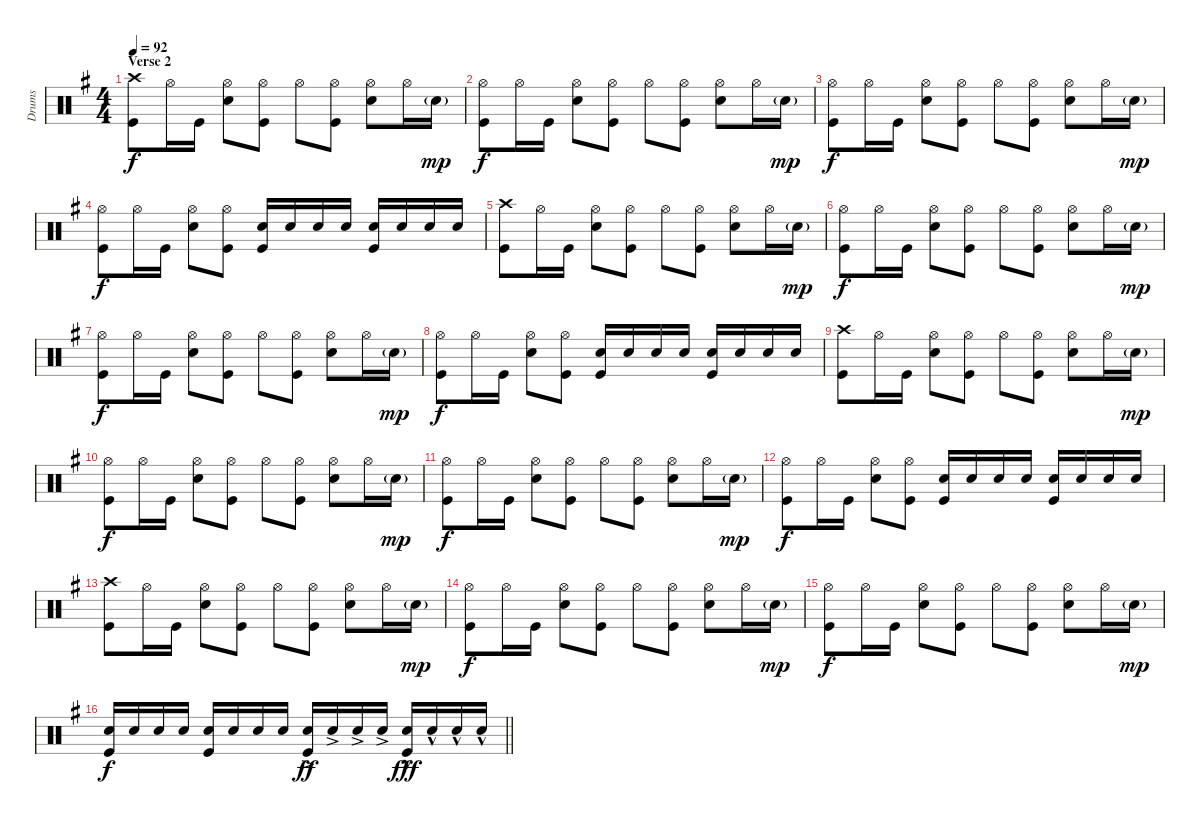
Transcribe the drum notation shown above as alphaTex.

\track ("Drums" "Drums") {instrument percussion}
\staff {score}
\articulation defaults
\ts (4 4)
\section ("" "Verse 2")
\tempo 92
\clef neutral
\ks eminor
("Kick (hit)" "Crash high (hit)").8{dy f} "Hi-Hat (open)".16 "Kick (hit)".16 ("Snare (hit) 2" "Hi-Hat (open)").8 ("Kick (hit)" "Hi-Hat (open)").8 "Hi-Hat (open)".8 ("Kick (hit)" "Hi-Hat (open)").8 ("Snare (hit) 2" "Hi-Hat (open)").8 "Hi-Hat (open)".16 "Snare (hit) 2"{g}.16{dy mp} |
("Kick (hit)" "Hi-Hat (open)").8{dy f} "Hi-Hat (open)".16 "Kick (hit)".16 ("Snare (hit) 2" "Hi-Hat (open)").8 ("Kick (hit)" "Hi-Hat (open)").8 "Hi-Hat (open)".8 ("Kick (hit)" "Hi-Hat (open)").8 ("Snare (hit) 2" "Hi-Hat (open)").8 "Hi-Hat (open)".16 "Snare (hit) 2"{g}.16{dy mp} |
("Kick (hit)" "Hi-Hat (open)").8{dy f} "Hi-Hat (open)".16 "Kick (hit)".16 ("Snare (hit) 2" "Hi-Hat (open)").8 ("Kick (hit)" "Hi-Hat (open)").8 "Hi-Hat (open)".8 ("Kick (hit)" "Hi-Hat (open)").8 ("Snare (hit) 2" "Hi-Hat (open)").8 "Hi-Hat (open)".16 "Snare (hit) 2"{g}.16{dy mp} |
("Kick (hit)" "Hi-Hat (open)").8{dy f} "Hi-Hat (open)".16 "Kick (hit)".16 ("Snare (hit) 2" "Hi-Hat (open)").8 ("Kick (hit)" "Hi-Hat (open)").8 ("Snare (hit) 2" "Kick (hit)").16 "Snare (hit) 2".16 "Snare (hit) 2".16 "Snare (hit) 2".16 ("Snare (hit) 2" "Kick (hit)").16 "Snare (hit) 2".16 "Snare (hit) 2".16 "Snare (hit) 2".16 |
("Kick (hit)" "Crash high (hit)").8 "Hi-Hat (open)".16 "Kick (hit)".16 ("Snare (hit) 2" "Hi-Hat (open)").8 ("Kick (hit)" "Hi-Hat (open)").8 "Hi-Hat (open)".8 ("Kick (hit)" "Hi-Hat (open)").8 ("Snare (hit) 2" "Hi-Hat (open)").8 "Hi-Hat (open)".16 "Snare (hit) 2"{g}.16{dy mp} |
("Kick (hit)" "Hi-Hat (open)").8{dy f} "Hi-Hat (open)".16 "Kick (hit)".16 ("Snare (hit) 2" "Hi-Hat (open)").8 ("Kick (hit)" "Hi-Hat (open)").8 "Hi-Hat (open)".8 ("Kick (hit)" "Hi-Hat (open)").8 ("Snare (hit) 2" "Hi-Hat (open)").8 "Hi-Hat (open)".16 "Snare (hit) 2"{g}.16{dy mp} |
("Kick (hit)" "Hi-Hat (open)").8{dy f} "Hi-Hat (open)".16 "Kick (hit)".16 ("Snare (hit) 2" "Hi-Hat (open)").8 ("Kick (hit)" "Hi-Hat (open)").8 "Hi-Hat (open)".8 ("Kick (hit)" "Hi-Hat (open)").8 ("Snare (hit) 2" "Hi-Hat (open)").8 "Hi-Hat (open)".16 "Snare (hit) 2"{g}.16{dy mp} |
("Kick (hit)" "Hi-Hat (open)").8{dy f} "Hi-Hat (open)".16 "Kick (hit)".16 ("Snare (hit) 2" "Hi-Hat (open)").8 ("Kick (hit)" "Hi-Hat (open)").8 ("Snare (hit) 2" "Kick (hit)").16 "Snare (hit) 2".16 "Snare (hit) 2".16 "Snare (hit) 2".16 ("Snare (hit) 2" "Kick (hit)").16 "Snare (hit) 2".16 "Snare (hit) 2".16 "Snare (hit) 2".16 |
("Kick (hit)" "Crash high (hit)").8 "Hi-Hat (open)".16 "Kick (hit)".16 ("Snare (hit) 2" "Hi-Hat (open)").8 ("Kick (hit)" "Hi-Hat (open)").8 "Hi-Hat (open)".8 ("Kick (hit)" "Hi-Hat (open)").8 ("Snare (hit) 2" "Hi-Hat (open)").8 "Hi-Hat (open)".16 "Snare (hit) 2"{g}.16{dy mp} |
("Kick (hit)" "Hi-Hat (open)").8{dy f} "Hi-Hat (open)".16 "Kick (hit)".16 ("Snare (hit) 2" "Hi-Hat (open)").8 ("Kick (hit)" "Hi-Hat (open)").8 "Hi-Hat (open)".8 ("Kick (hit)" "Hi-Hat (open)").8 ("Snare (hit) 2" "Hi-Hat (open)").8 "Hi-Hat (open)".16 "Snare (hit) 2"{g}.16{dy mp} |
("Kick (hit)" "Hi-Hat (open)").8{dy f} "Hi-Hat (open)".16 "Kick (hit)".16 ("Snare (hit) 2" "Hi-Hat (open)").8 ("Kick (hit)" "Hi-Hat (open)").8 "Hi-Hat (open)".8 ("Kick (hit)" "Hi-Hat (open)").8 ("Snare (hit) 2" "Hi-Hat (open)").8 "Hi-Hat (open)".16 "Snare (hit) 2"{g}.16{dy mp} |
("Kick (hit)" "Hi-Hat (open)").8{dy f} "Hi-Hat (open)".16 "Kick (hit)".16 ("Snare (hit) 2" "Hi-Hat (open)").8 ("Kick (hit)" "Hi-Hat (open)").8 ("Snare (hit) 2" "Kick (hit)").16 "Snare (hit) 2".16 "Snare (hit) 2".16 "Snare (hit) 2".16 ("Snare (hit) 2" "Kick (hit)").16 "Snare (hit) 2".16 "Snare (hit) 2".16 "Snare (hit) 2".16 |
("Kick (hit)" "Crash high (hit)").8 "Hi-Hat (open)".16 "Kick (hit)".16 ("Snare (hit) 2" "Hi-Hat (open)").8 ("Kick (hit)" "Hi-Hat (open)").8 "Hi-Hat (open)".8 ("Kick (hit)" "Hi-Hat (open)").8 ("Snare (hit) 2" "Hi-Hat (open)").8 "Hi-Hat (open)".16 "Snare (hit) 2"{g}.16{dy mp} |
("Kick (hit)" "Hi-Hat (open)").8{dy f} "Hi-Hat (open)".16 "Kick (hit)".16 ("Snare (hit) 2" "Hi-Hat (open)").8 ("Kick (hit)" "Hi-Hat (open)").8 "Hi-Hat (open)".8 ("Kick (hit)" "Hi-Hat (open)").8 ("Snare (hit) 2" "Hi-Hat (open)").8 "Hi-Hat (open)".16 "Snare (hit) 2"{g}.16{dy mp} |
("Kick (hit)" "Hi-Hat (open)").8{dy f} "Hi-Hat (open)".16 "Kick (hit)".16 ("Snare (hit) 2" "Hi-Hat (open)").8 ("Kick (hit)" "Hi-Hat (open)").8 "Hi-Hat (open)".8 ("Kick (hit)" "Hi-Hat (open)").8 ("Snare (hit) 2" "Hi-Hat (open)").8 "Hi-Hat (open)".16 "Snare (hit) 2"{g}.16{dy mp} |
\barLineRight lightlight
("Snare (hit) 2" "Kick (hit)").16{dy f} "Snare (hit) 2".16 "Snare (hit) 2".16 "Snare (hit) 2".16 ("Snare (hit) 2" "Kick (hit)").16 "Snare (hit) 2".16 "Snare (hit) 2".16 "Snare (hit) 2".16 ("Snare (hit) 2"{ac} "Kick (hit)"{ac}).16{dy ff} "Snare (hit) 2"{ac}.16 "Snare (hit) 2"{ac}.16 "Snare (hit) 2"{ac}.16 ("Snare (hit) 2"{hac} "Kick (hit)"{hac}).16{dy fff} "Snare (hit) 2"{hac}.16 "Snare (hit) 2"{hac}.16 "Snare (hit) 2"{hac}.16
